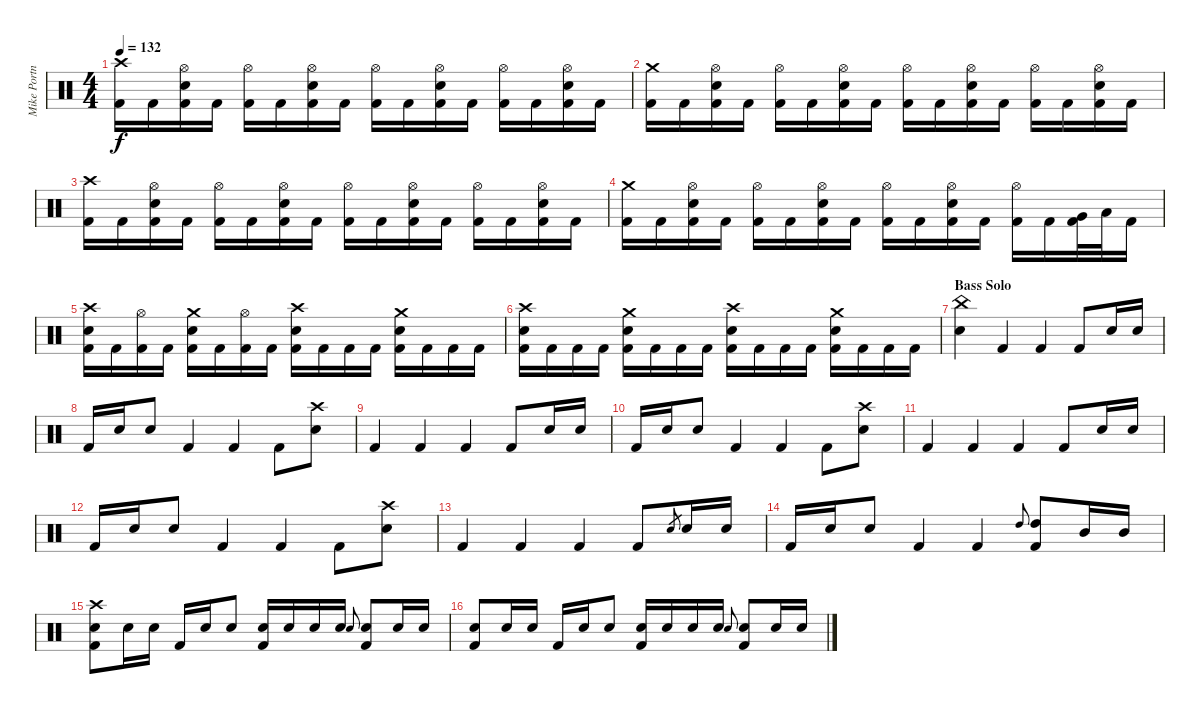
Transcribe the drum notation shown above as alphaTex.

\track ("Mike Portnoy" "Mike Portn") {instrument percussion}
\staff {score}
\articulation defaults
\ts (4 4)
\tempo 132
\clef neutral
\ks c
("Crash high (hit)" "Kick (hit) 2").16{dy f} "Kick (hit) 2".16 ("Hi-Hat (open)" "Electric Snare (hit)" "Kick (hit) 2").16 "Kick (hit) 2".16 ("Hi-Hat (open)" "Kick (hit) 2").16 "Kick (hit) 2".16 ("Hi-Hat (open)" "Electric Snare (hit)" "Kick (hit) 2").16 "Kick (hit) 2".16 ("Hi-Hat (open)" "Kick (hit) 2").16 "Kick (hit) 2".16 ("Hi-Hat (open)" "Electric Snare (hit)" "Kick (hit) 2").16 "Kick (hit) 2".16 ("Hi-Hat (open)" "Kick (hit) 2").16 "Kick (hit) 2".16 ("Hi-Hat (open)" "Electric Snare (hit)" "Kick (hit) 2").16 "Kick (hit) 2".16 |
("Crash medium (hit)" "Kick (hit) 2").16 "Kick (hit) 2".16 ("Hi-Hat (open)" "Electric Snare (hit)" "Kick (hit) 2").16 "Kick (hit) 2".16 ("Hi-Hat (open)" "Kick (hit) 2").16 "Kick (hit) 2".16 ("Hi-Hat (open)" "Electric Snare (hit)" "Kick (hit) 2").16 "Kick (hit) 2".16 ("Hi-Hat (open)" "Kick (hit) 2").16 "Kick (hit) 2".16 ("Hi-Hat (open)" "Electric Snare (hit)" "Kick (hit) 2").16 "Kick (hit) 2".16 ("Hi-Hat (open)" "Kick (hit) 2").16 "Kick (hit) 2".16 ("Hi-Hat (open)" "Electric Snare (hit)" "Kick (hit) 2").16 "Kick (hit) 2".16 |
("Crash high (hit)" "Kick (hit) 2").16 "Kick (hit) 2".16 ("Hi-Hat (open)" "Electric Snare (hit)" "Kick (hit) 2").16 "Kick (hit) 2".16 ("Hi-Hat (open)" "Kick (hit) 2").16 "Kick (hit) 2".16 ("Hi-Hat (open)" "Electric Snare (hit)" "Kick (hit) 2").16 "Kick (hit) 2".16 ("Hi-Hat (open)" "Kick (hit) 2").16 "Kick (hit) 2".16 ("Hi-Hat (open)" "Electric Snare (hit)" "Kick (hit) 2").16 "Kick (hit) 2".16 ("Hi-Hat (open)" "Kick (hit) 2").16 "Kick (hit) 2".16 ("Hi-Hat (open)" "Electric Snare (hit)" "Kick (hit) 2").16 "Kick (hit) 2".16 |
("Crash medium (hit)" "Kick (hit) 2").16 "Kick (hit) 2".16 ("Hi-Hat (open)" "Electric Snare (hit)" "Kick (hit) 2").16 "Kick (hit) 2".16 ("Hi-Hat (open)" "Kick (hit) 2").16 "Kick (hit) 2".16 ("Hi-Hat (open)" "Electric Snare (hit)" "Kick (hit) 2").16 "Kick (hit) 2".16 ("Hi-Hat (open)" "Kick (hit) 2").16 "Kick (hit) 2".16 ("Hi-Hat (open)" "Electric Snare (hit)" "Kick (hit) 2").16 "Kick (hit) 2".16 ("Hi-Hat (open)" "Kick (hit) 2").16 "Kick (hit) 2".16 ("Very Low Tom (hit)" "Kick (hit) 2").32 "Low Tom (hit)".32 "Kick (hit) 2".16 |
("Crash high (hit)" "Electric Snare (hit)" "Kick (hit) 2").16 "Kick (hit) 2".16 ("Hi-Hat (open)" "Kick (hit) 2").16 "Kick (hit) 2".16 ("Crash medium (hit)" "Electric Snare (hit)" "Kick (hit) 2").16 "Kick (hit) 2".16 ("Hi-Hat (open)" "Kick (hit) 2").16 "Kick (hit) 2".16 ("Crash high (hit)" "Electric Snare (hit)" "Kick (hit) 2").16 "Kick (hit) 2".16 "Kick (hit) 2".16 "Kick (hit) 2".16 ("Crash medium (hit)" "Electric Snare (hit)" "Kick (hit) 2").16 "Kick (hit) 2".16 "Kick (hit) 2".16 "Kick (hit) 2".16 |
("Crash high (hit)" "Electric Snare (hit)" "Kick (hit) 2").16 "Kick (hit) 2".16 "Kick (hit) 2".16 "Kick (hit) 2".16 ("Crash medium (hit)" "Electric Snare (hit)" "Kick (hit) 2").16 "Kick (hit) 2".16 "Kick (hit) 2".16 "Kick (hit) 2".16 ("Crash high (hit)" "Electric Snare (hit)" "Kick (hit) 2").16 "Kick (hit) 2".16 "Kick (hit) 2".16 "Kick (hit) 2".16 ("Crash medium (hit)" "Electric Snare (hit)" "Kick (hit) 2").16 "Kick (hit) 2".16 "Kick (hit) 2".16 "Kick (hit) 2".16 |
\section ("" "Bass Solo")
("China (hit)" "Electric Snare (hit)").4 "Kick (hit) 2".4 "Kick (hit) 2".4 "Kick (hit) 2".8 "Electric Snare (hit)".16 "Electric Snare (hit)".16 |
"Kick (hit) 2".16 "Electric Snare (hit)".16 "Electric Snare (hit)".8 "Kick (hit) 2".4 "Kick (hit) 2".4 "Kick (hit) 2".8 ("Crash high (hit)" "Electric Snare (hit)").8 |
"Kick (hit) 2".4 "Kick (hit) 2".4 "Kick (hit) 2".4 "Kick (hit) 2".8 "Electric Snare (hit)".16 "Electric Snare (hit)".16 |
"Kick (hit) 2".16 "Electric Snare (hit)".16 "Electric Snare (hit)".8 "Kick (hit) 2".4 "Kick (hit) 2".4 "Kick (hit) 2".8 ("Crash high (hit)" "Electric Snare (hit)").8 |
"Kick (hit) 2".4 "Kick (hit) 2".4 "Kick (hit) 2".4 "Kick (hit) 2".8 "Electric Snare (hit)".16 "Electric Snare (hit)".16 |
"Kick (hit) 2".16 "Electric Snare (hit)".16 "Electric Snare (hit)".8 "Kick (hit) 2".4 "Kick (hit) 2".4 "Kick (hit) 2".8 ("Crash high (hit)" "Electric Snare (hit)").8 |
"Kick (hit) 2".4 "Kick (hit) 2".4 "Kick (hit) 2".4 "Kick (hit) 2".8 "Electric Snare (hit)".8{gr} "Electric Snare (hit)".16 "Electric Snare (hit)".16 |
"Kick (hit) 2".16 "Electric Snare (hit)".16 "Electric Snare (hit)".8 "Kick (hit) 2".4 "Kick (hit) 2".4 "High Tom (hit)".8{gr onbeat} ("High Tom (hit)" "Kick (hit) 2").8 "Mid Tom (hit)".16 "Mid Tom (hit)".16 |
("Crash high (hit)" "Electric Snare (hit)" "Kick (hit) 2").8 "Electric Snare (hit)".16 "Electric Snare (hit)".16 "Kick (hit) 2".16 "Electric Snare (hit)".16 "Electric Snare (hit)".8 ("Electric Snare (hit)" "Kick (hit) 2").16 "Electric Snare (hit)".16 "Electric Snare (hit)".16 "Electric Snare (hit)".16 "Electric Snare (hit)".8{gr onbeat} ("Electric Snare (hit)" "Kick (hit) 2").8 "Electric Snare (hit)".16 "Electric Snare (hit)".16 |
("Electric Snare (hit)" "Kick (hit) 2").8 "Electric Snare (hit)".16 "Electric Snare (hit)".16 "Kick (hit) 2".16 "Electric Snare (hit)".16 "Electric Snare (hit)".8 ("Electric Snare (hit)" "Kick (hit) 2").16 "Electric Snare (hit)".16 "Electric Snare (hit)".16 "Electric Snare (hit)".16 "Electric Snare (hit)".8{gr onbeat} ("Electric Snare (hit)" "Kick (hit) 2").8 "Electric Snare (hit)".16 "Electric Snare (hit)".16
